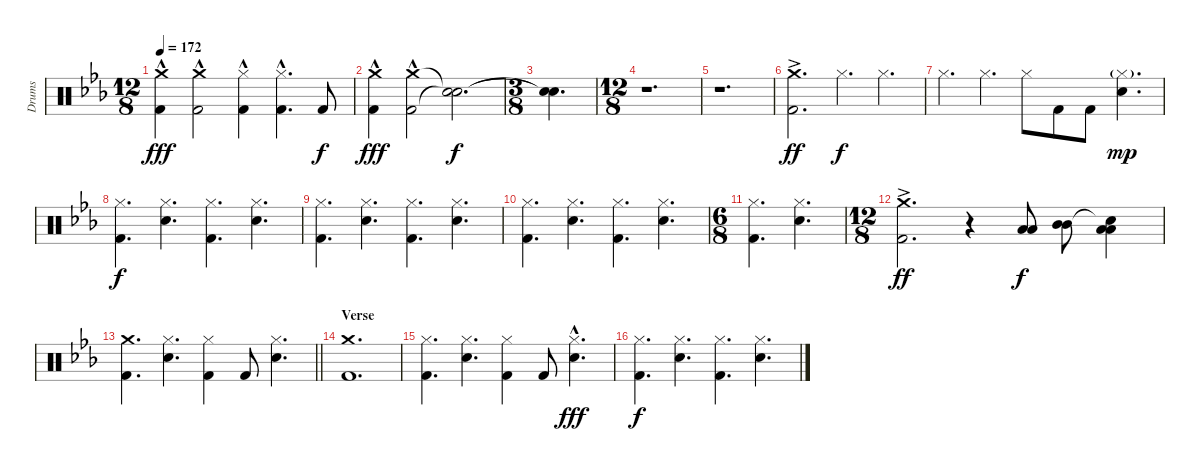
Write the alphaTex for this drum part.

\track ("Drums" "Drums") {instrument percussion}
\staff {score}
\articulation defaults
\ts (12 8)
\tempo 172
\clef neutral
\ks cminor
("Crash medium (hit)" "Kick (hit) 2"{hac}).4{dy fff} ("Crash medium (hit)" "Kick (hit) 2"{hac}).2 ("Hi-Hat (closed)" "Kick (hit) 2"{hac}).4 ("Hi-Hat (closed)" "Kick (hit) 2"{hac}).4{d} "Kick (hit) 2".8{dy f} |
("Crash medium (hit)" "Kick (hit) 2"{hac}).4{dy fff} ("Crash medium (hit)" "Kick (hit) 2"{hac}).2 ("Snare (hit)"{t} "Snare (hit)"{t}).2{d dy f} |
\ts (3 8)
("Snare (hit)"{t} "Snare (hit)"{t}).4{d} |
\ts (12 8)
r.1{d} |
r.1{d} |
("Crash medium (hit)" "Kick (hit) 2"{ac}).2{d dy ff} "Hi-Hat (closed)".4{d dy f} "Hi-Hat (closed)".4{d} |
"Hi-Hat (closed)".4{d} "Hi-Hat (closed)".4{d} "Hi-Hat (closed)".8 "Kick (hit) 2".8 "Kick (hit) 2".8 ("Hi-Hat (closed)"{g} "Electric Snare (hit)").4{d dy mp} |
("Hi-Hat (closed)" "Kick (hit) 2").4{d dy f} ("Hi-Hat (closed)" "Electric Snare (hit)").4{d} ("Hi-Hat (closed)" "Kick (hit) 2").4{d} ("Hi-Hat (closed)" "Electric Snare (hit)").4{d} |
("Hi-Hat (closed)" "Kick (hit) 2").4{d} ("Hi-Hat (closed)" "Electric Snare (hit)").4{d} ("Hi-Hat (closed)" "Kick (hit) 2").4{d} ("Hi-Hat (closed)" "Electric Snare (hit)").4{d} |
("Hi-Hat (closed)" "Kick (hit) 2").4{d} ("Hi-Hat (closed)" "Electric Snare (hit)").4{d} ("Hi-Hat (closed)" "Kick (hit) 2").4{d} ("Hi-Hat (closed)" "Electric Snare (hit)").4{d} |
\ts (6 8)
("Hi-Hat (closed)" "Kick (hit) 2").4{d} ("Hi-Hat (closed)" "Electric Snare (hit)").4{d} |
\ts (12 8)
("Crash medium (hit)" "Kick (hit) 2"{ac}).2{d dy ff} r.4 ("Low Tom (hit)" "Low Tom (hit)").8{dy f} ("Mid Tom (hit)" "Mid Tom (hit)").8 ("Snare (hit)"{t} "Low Tom (hit)" "Low Tom (hit)").4 |
\barLineRight lightlight
("Crash medium (hit)" "Kick (hit) 2").4{d} ("Hi-Hat (closed)" "Electric Snare (hit)").4{d} ("Hi-Hat (closed)" "Kick (hit) 2").4 "Kick (hit) 2".8 ("Hi-Hat (closed)" "Electric Snare (hit)").4{d} |
\section ("" "Verse")
("Crash medium (hit)" "Kick (hit) 2").1{d} |
("Hi-Hat (closed)" "Kick (hit) 2").4{d} ("Hi-Hat (closed)" "Electric Snare (hit)").4{d} ("Hi-Hat (closed)" "Kick (hit) 2").4 "Kick (hit) 2".8 ("Hi-Hat (closed)"{hac} "Electric Snare (hit)").4{d dy fff} |
("Hi-Hat (closed)" "Kick (hit) 2").4{d dy f} ("Hi-Hat (closed)" "Electric Snare (hit)").4{d} ("Hi-Hat (closed)" "Kick (hit) 2").4{d} ("Hi-Hat (closed)" "Electric Snare (hit)").4{d}
